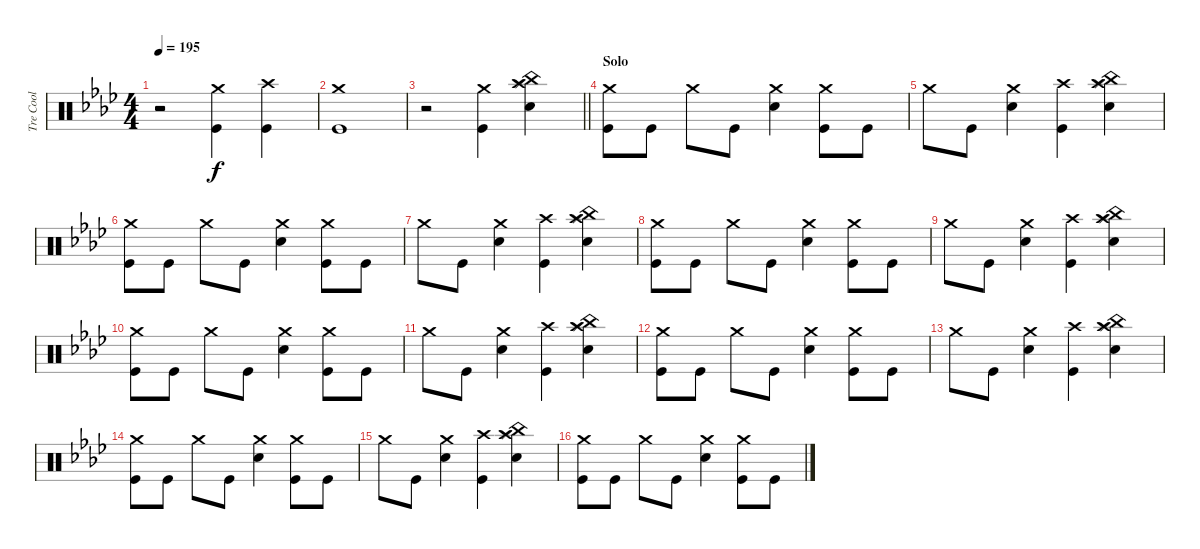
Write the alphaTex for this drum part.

\track ("Tre Cool" "Tre Cool") {instrument percussion}
\staff {score}
\articulation defaults
\ts (4 4)
\tempo 195
\clef neutral
\ks ab
r.2{dy f} ("Crash medium (hit)" "Kick (hit)").4 ("Crash high (hit)" "Kick (hit)").4 |
("Crash medium (hit)" "Kick (hit)").1 |
\barLineRight lightlight
r.2 ("Crash medium (hit)" "Kick (hit)").4 ("China (hit)" "Splash (hit)" "Electric Snare (hit)" "Crash high (hit)").4 |
\section ("" "Solo")
("Crash medium (hit)" "Kick (hit)").8 "Kick (hit)".8 "Crash medium (hit)".8 "Kick (hit)".8 ("Crash medium (hit)" "Electric Snare (hit)").4 ("Crash medium (hit)" "Kick (hit)").8 "Kick (hit)".8 |
"Crash medium (hit)".8 "Kick (hit)".8 ("Crash medium (hit)" "Electric Snare (hit)").4 ("Crash high (hit)" "Kick (hit)").4 ("China (hit)" "Splash (hit)" "Electric Snare (hit)" "Crash high (hit)").4 |
("Crash medium (hit)" "Kick (hit)").8 "Kick (hit)".8 "Crash medium (hit)".8 "Kick (hit)".8 ("Crash medium (hit)" "Electric Snare (hit)").4 ("Crash medium (hit)" "Kick (hit)").8 "Kick (hit)".8 |
"Crash medium (hit)".8 "Kick (hit)".8 ("Crash medium (hit)" "Electric Snare (hit)").4 ("Crash high (hit)" "Kick (hit)").4 ("China (hit)" "Splash (hit)" "Electric Snare (hit)" "Crash high (hit)").4 |
("Crash medium (hit)" "Kick (hit)").8 "Kick (hit)".8 "Crash medium (hit)".8 "Kick (hit)".8 ("Crash medium (hit)" "Electric Snare (hit)").4 ("Crash medium (hit)" "Kick (hit)").8 "Kick (hit)".8 |
"Crash medium (hit)".8 "Kick (hit)".8 ("Crash medium (hit)" "Electric Snare (hit)").4 ("Crash high (hit)" "Kick (hit)").4 ("China (hit)" "Splash (hit)" "Electric Snare (hit)" "Crash high (hit)").4 |
("Crash medium (hit)" "Kick (hit)").8 "Kick (hit)".8 "Crash medium (hit)".8 "Kick (hit)".8 ("Crash medium (hit)" "Electric Snare (hit)").4 ("Crash medium (hit)" "Kick (hit)").8 "Kick (hit)".8 |
"Crash medium (hit)".8 "Kick (hit)".8 ("Crash medium (hit)" "Electric Snare (hit)").4 ("Crash high (hit)" "Kick (hit)").4 ("China (hit)" "Splash (hit)" "Electric Snare (hit)" "Crash high (hit)").4 |
("Crash medium (hit)" "Kick (hit)").8 "Kick (hit)".8 "Crash medium (hit)".8 "Kick (hit)".8 ("Crash medium (hit)" "Electric Snare (hit)").4 ("Crash medium (hit)" "Kick (hit)").8 "Kick (hit)".8 |
"Crash medium (hit)".8 "Kick (hit)".8 ("Crash medium (hit)" "Electric Snare (hit)").4 ("Crash high (hit)" "Kick (hit)").4 ("China (hit)" "Splash (hit)" "Electric Snare (hit)" "Crash high (hit)").4 |
("Crash medium (hit)" "Kick (hit)").8 "Kick (hit)".8 "Crash medium (hit)".8 "Kick (hit)".8 ("Crash medium (hit)" "Electric Snare (hit)").4 ("Crash medium (hit)" "Kick (hit)").8 "Kick (hit)".8 |
"Crash medium (hit)".8 "Kick (hit)".8 ("Crash medium (hit)" "Electric Snare (hit)").4 ("Crash high (hit)" "Kick (hit)").4 ("China (hit)" "Splash (hit)" "Electric Snare (hit)" "Crash high (hit)").4 |
("Crash medium (hit)" "Kick (hit)").8 "Kick (hit)".8 "Crash medium (hit)".8 "Kick (hit)".8 ("Crash medium (hit)" "Electric Snare (hit)").4 ("Crash medium (hit)" "Kick (hit)").8 "Kick (hit)".8
